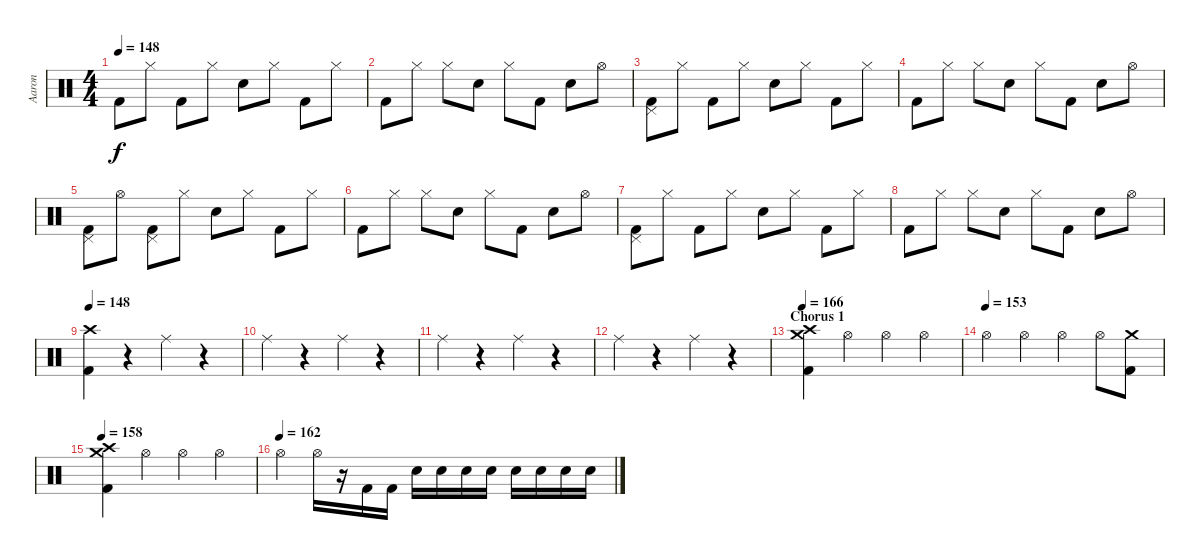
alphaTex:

\track ("Aaron" "Aaron") {instrument percussion}
\staff {score}
\articulation defaults
\ts (4 4)
\tempo 148
\clef neutral
\ks c "Kick (hit) 2".8{dy f} "Hi-Hat (closed)".8 "Kick (hit) 2".8 "Hi-Hat (closed)".8 "Snare (hit) 2".8 "Hi-Hat (closed)".8 "Kick (hit) 2".8 "Hi-Hat (closed)".8
|
"Kick (hit) 2".8 "Hi-Hat (closed)".8 "Hi-Hat (closed)".8 "Snare (hit) 2".8 "Hi-Hat (closed)".8 "Kick (hit) 2".8 "Snare (hit) 2".8 "Hi-Hat (open)".8 |
("Pedal Hi-Hat (hit)" "Kick (hit) 2").8 "Hi-Hat (closed)".8 "Kick (hit) 2".8 "Hi-Hat (closed)".8 "Snare (hit) 2".8 "Hi-Hat (closed)".8 "Kick (hit) 2".8 "Hi-Hat (closed)".8 |
"Kick (hit) 2".8 "Hi-Hat (closed)".8 "Hi-Hat (closed)".8 "Snare (hit) 2".8 "Hi-Hat (closed)".8 "Kick (hit) 2".8 "Snare (hit) 2".8 "Hi-Hat (open)".8 |
("Pedal Hi-Hat (hit)" "Kick (hit) 2").8 "Hi-Hat (open)".8 ("Pedal Hi-Hat (hit)" "Kick (hit) 2").8 "Hi-Hat (closed)".8 "Snare (hit) 2".8 "Hi-Hat (closed)".8 "Kick (hit) 2".8 "Hi-Hat (closed)".8 |
"Kick (hit) 2".8 "Hi-Hat (closed)".8 "Hi-Hat (closed)".8 "Snare (hit) 2".8 "Hi-Hat (closed)".8 "Kick (hit) 2".8 "Snare (hit) 2".8 "Hi-Hat (open)".8 |
("Pedal Hi-Hat (hit)" "Kick (hit) 2").8 "Hi-Hat (closed)".8 "Kick (hit) 2".8 "Hi-Hat (closed)".8 "Snare (hit) 2".8 "Hi-Hat (closed)".8 "Kick (hit) 2".8 "Hi-Hat (closed)".8 |
"Kick (hit) 2".8 "Hi-Hat (closed)".8 "Hi-Hat (closed)".8 "Snare (hit) 2".8 "Hi-Hat (closed)".8 "Kick (hit) 2".8 "Snare (hit) 2".8 "Hi-Hat (open)".8 |
\tempo 147
\tempo 148
("Crash high (hit)" "Kick (hit) 2").4 r.4 "Ride (middle)".4 r.4 |
"Ride (middle)".4 r.4 "Ride (middle)".4 r.4 |
"Ride (middle)".4 r.4 "Ride (middle)".4 r.4 |
"Ride (middle)".4 r.4 "Ride (middle)".4 r.4 |
\section ("" "Chorus 1")
\tempo 164
\tempo 166
("Crash high (hit)" "Crash medium (hit)" "Kick (hit) 2").4 "Hi-Hat (open)".4 "Hi-Hat (open)".4 "Hi-Hat (open)".4 |
\tempo (153)
"Hi-Hat (open)".4 "Hi-Hat (open)".4 "Hi-Hat (open)".4 "Hi-Hat (open)".8 ("Crash medium (hit)" "Kick (hit) 2").8 |
\tempo 158
("Crash high (hit)" "Crash medium (hit)" "Kick (hit) 2").4 "Hi-Hat (open)".4 "Hi-Hat (open)".4 "Hi-Hat (open)".4 |
\tempo (162)
"Hi-Hat (open)".4 "Hi-Hat (open)".16 r.16 "Kick (hit) 2".16 "Kick (hit) 2".16 "Snare (hit) 2".16 "Snare (hit) 2".16 "Snare (hit) 2".16 "Snare (hit) 2".16 "Snare (hit) 2".16 "Snare (hit) 2".16 "Snare (hit) 2".16 "Snare (hit) 2".16
